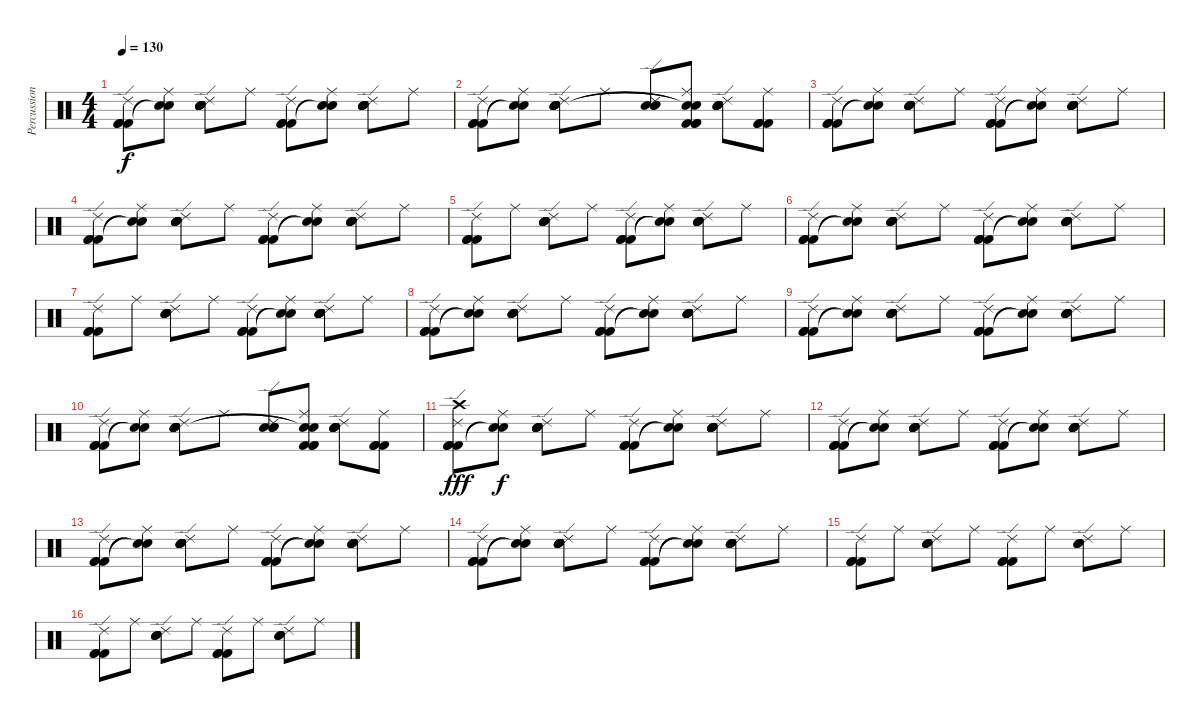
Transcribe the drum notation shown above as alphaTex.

\track ("Percussion" "Percussion") {instrument percussion}
\staff {score}
\articulation defaults
\ts (4 4)
\tempo 130
\clef neutral
\ks c
("Ride (edge) 2" "Kick (hit) 2" "Kick (hit) 2" "Kick (hit) 2").8{dy f} ("Ride (middle)" "Snare (hit)"{t} "Snare (hit)"{t}).8 ("Ride (edge) 2" "Electric Snare (hit)" "Electric Snare (hit)" "Electric Snare (hit)" "Hand Clap (hit)" "Hand Clap (hit)").8 "Ride (middle)".8 ("Ride (edge) 2" "Kick (hit) 2" "Kick (hit) 2" "Kick (hit) 2").8 ("Ride (middle)" "Snare (hit)"{t} "Snare (hit)"{t}).8 ("Ride (edge) 2" "Electric Snare (hit)" "Electric Snare (hit)" "Electric Snare (hit)" "Hand Clap (hit)" "Hand Clap (hit)").8 "Ride (middle)".8 |
("Ride (edge) 2" "Kick (hit) 2" "Kick (hit) 2" "Kick (hit) 2").8 ("Ride (middle)" "Snare (hit)"{t} "Snare (hit)"{t}).8 ("Ride (edge) 2" "Electric Snare (hit)" "Electric Snare (hit)" "Electric Snare (hit)" "Hand Clap (hit)" "Hand Clap (hit)").8 "Ride (middle)".8 ("Ride (edge) 2" "Electric Snare (hit)" "Electric Snare (hit)" "Electric Snare (hit)").8 ("Ride (middle)" "Kick (hit) 2" "Kick (hit) 2" "Kick (hit) 2" "Snare (hit)"{t} "Snare (hit)"{t}).8 ("Ride (edge) 2" "Electric Snare (hit)" "Electric Snare (hit)" "Electric Snare (hit)" "Hand Clap (hit)" "Hand Clap (hit)").8 ("Ride (middle)" "Kick (hit) 2" "Kick (hit) 2" "Kick (hit) 2").8 |
("Ride (edge) 2" "Kick (hit) 2" "Kick (hit) 2" "Kick (hit) 2").8 ("Ride (middle)" "Snare (hit)"{t} "Snare (hit)"{t}).8 ("Ride (edge) 2" "Electric Snare (hit)" "Electric Snare (hit)" "Electric Snare (hit)" "Hand Clap (hit)" "Hand Clap (hit)").8 "Ride (middle)".8 ("Ride (edge) 2" "Kick (hit) 2" "Kick (hit) 2" "Kick (hit) 2").8 ("Ride (middle)" "Snare (hit)"{t} "Snare (hit)"{t}).8 ("Ride (edge) 2" "Electric Snare (hit)" "Electric Snare (hit)" "Electric Snare (hit)" "Hand Clap (hit)" "Hand Clap (hit)").8 "Ride (middle)".8 |
("Ride (edge) 2" "Kick (hit) 2" "Kick (hit) 2" "Kick (hit) 2").8 ("Ride (middle)" "Snare (hit)"{t} "Snare (hit)"{t}).8 ("Ride (edge) 2" "Electric Snare (hit)" "Electric Snare (hit)" "Electric Snare (hit)" "Hand Clap (hit)" "Hand Clap (hit)").8 "Ride (middle)".8 ("Ride (edge) 2" "Kick (hit) 2" "Kick (hit) 2" "Kick (hit) 2").8 ("Ride (middle)" "Snare (hit)"{t} "Snare (hit)"{t}).8 ("Ride (edge) 2" "Electric Snare (hit)" "Electric Snare (hit)" "Electric Snare (hit)" "Hand Clap (hit)" "Hand Clap (hit)").8 "Ride (middle)".8 |
("Ride (edge) 2" "Kick (hit) 2" "Kick (hit) 2" "Kick (hit) 2").8 "Ride (middle)".8 ("Ride (edge) 2" "Electric Snare (hit)" "Electric Snare (hit)" "Electric Snare (hit)" "Hand Clap (hit)" "Hand Clap (hit)").8 "Ride (middle)".8 ("Ride (edge) 2" "Kick (hit) 2" "Kick (hit) 2" "Kick (hit) 2").8 ("Ride (middle)" "Snare (hit)"{t} "Snare (hit)"{t}).8 ("Ride (edge) 2" "Electric Snare (hit)" "Electric Snare (hit)" "Electric Snare (hit)" "Hand Clap (hit)" "Hand Clap (hit)").8 "Ride (middle)".8 |
("Ride (edge) 2" "Kick (hit) 2" "Kick (hit) 2" "Kick (hit) 2").8 ("Ride (middle)" "Snare (hit)"{t} "Snare (hit)"{t}).8 ("Ride (edge) 2" "Electric Snare (hit)" "Electric Snare (hit)" "Electric Snare (hit)" "Hand Clap (hit)" "Hand Clap (hit)").8 "Ride (middle)".8 ("Ride (edge) 2" "Kick (hit) 2" "Kick (hit) 2" "Kick (hit) 2").8 ("Ride (middle)" "Snare (hit)"{t} "Snare (hit)"{t}).8 ("Ride (edge) 2" "Electric Snare (hit)" "Electric Snare (hit)" "Electric Snare (hit)" "Hand Clap (hit)" "Hand Clap (hit)").8 "Ride (middle)".8 |
("Ride (edge) 2" "Kick (hit) 2" "Kick (hit) 2" "Kick (hit) 2").8 "Ride (middle)".8 ("Ride (edge) 2" "Electric Snare (hit)" "Electric Snare (hit)" "Electric Snare (hit)" "Hand Clap (hit)" "Hand Clap (hit)").8 "Ride (middle)".8 ("Ride (edge) 2" "Kick (hit) 2" "Kick (hit) 2" "Kick (hit) 2").8 ("Ride (middle)" "Snare (hit)"{t} "Snare (hit)"{t}).8 ("Ride (edge) 2" "Electric Snare (hit)" "Electric Snare (hit)" "Electric Snare (hit)" "Hand Clap (hit)" "Hand Clap (hit)").8 "Ride (middle)".8 |
("Ride (edge) 2" "Kick (hit) 2" "Kick (hit) 2" "Kick (hit) 2").8 ("Ride (middle)" "Snare (hit)"{t} "Snare (hit)"{t}).8 ("Ride (edge) 2" "Electric Snare (hit)" "Electric Snare (hit)" "Electric Snare (hit)" "Hand Clap (hit)" "Hand Clap (hit)").8 "Ride (middle)".8 ("Ride (edge) 2" "Kick (hit) 2" "Kick (hit) 2" "Kick (hit) 2").8 ("Ride (middle)" "Snare (hit)"{t} "Snare (hit)"{t}).8 ("Ride (edge) 2" "Electric Snare (hit)" "Electric Snare (hit)" "Electric Snare (hit)" "Hand Clap (hit)" "Hand Clap (hit)").8 "Ride (middle)".8 |
("Ride (edge) 2" "Kick (hit) 2" "Kick (hit) 2" "Kick (hit) 2").8 ("Ride (middle)" "Snare (hit)"{t} "Snare (hit)"{t}).8 ("Ride (edge) 2" "Electric Snare (hit)" "Electric Snare (hit)" "Electric Snare (hit)" "Hand Clap (hit)" "Hand Clap (hit)").8 "Ride (middle)".8 ("Ride (edge) 2" "Kick (hit) 2" "Kick (hit) 2" "Kick (hit) 2").8 ("Ride (middle)" "Snare (hit)"{t} "Snare (hit)"{t}).8 ("Ride (edge) 2" "Electric Snare (hit)" "Electric Snare (hit)" "Electric Snare (hit)" "Hand Clap (hit)" "Hand Clap (hit)").8 "Ride (middle)".8 |
("Ride (edge) 2" "Kick (hit) 2" "Kick (hit) 2" "Kick (hit) 2").8 ("Ride (middle)" "Snare (hit)"{t} "Snare (hit)"{t}).8 ("Ride (edge) 2" "Electric Snare (hit)" "Electric Snare (hit)" "Electric Snare (hit)" "Hand Clap (hit)" "Hand Clap (hit)").8 "Ride (middle)".8 ("Ride (edge) 2" "Electric Snare (hit)" "Electric Snare (hit)" "Electric Snare (hit)").8 ("Ride (middle)" "Kick (hit) 2" "Kick (hit) 2" "Kick (hit) 2" "Snare (hit)"{t} "Snare (hit)"{t}).8 ("Ride (edge) 2" "Electric Snare (hit)" "Electric Snare (hit)" "Electric Snare (hit)" "Hand Clap (hit)" "Hand Clap (hit)").8 ("Ride (middle)" "Kick (hit) 2" "Kick (hit) 2" "Kick (hit) 2").8 |
("Ride (edge) 2" "Kick (hit) 2" "Kick (hit) 2" "Kick (hit) 2" "Crash high (hit)").8{dy fff} ("Ride (middle)" "Snare (hit)"{t} "Snare (hit)"{t}).8{dy f} ("Ride (edge) 2" "Electric Snare (hit)" "Electric Snare (hit)" "Electric Snare (hit)" "Hand Clap (hit)" "Hand Clap (hit)").8 "Ride (middle)".8 ("Ride (edge) 2" "Kick (hit) 2" "Kick (hit) 2" "Kick (hit) 2").8 ("Ride (middle)" "Snare (hit)"{t} "Snare (hit)"{t}).8 ("Ride (edge) 2" "Electric Snare (hit)" "Electric Snare (hit)" "Electric Snare (hit)" "Hand Clap (hit)" "Hand Clap (hit)").8 "Ride (middle)".8 |
("Ride (edge) 2" "Kick (hit) 2" "Kick (hit) 2" "Kick (hit) 2").8 ("Ride (middle)" "Snare (hit)"{t} "Snare (hit)"{t}).8 ("Ride (edge) 2" "Electric Snare (hit)" "Electric Snare (hit)" "Electric Snare (hit)" "Hand Clap (hit)" "Hand Clap (hit)").8 "Ride (middle)".8 ("Ride (edge) 2" "Kick (hit) 2" "Kick (hit) 2" "Kick (hit) 2").8 ("Ride (middle)" "Snare (hit)"{t} "Snare (hit)"{t}).8 ("Ride (edge) 2" "Electric Snare (hit)" "Electric Snare (hit)" "Electric Snare (hit)" "Hand Clap (hit)" "Hand Clap (hit)").8 "Ride (middle)".8 |
("Ride (edge) 2" "Kick (hit) 2" "Kick (hit) 2" "Kick (hit) 2").8 ("Ride (middle)" "Snare (hit)"{t} "Snare (hit)"{t}).8 ("Ride (edge) 2" "Electric Snare (hit)" "Electric Snare (hit)" "Electric Snare (hit)" "Hand Clap (hit)" "Hand Clap (hit)").8 "Ride (middle)".8 ("Ride (edge) 2" "Kick (hit) 2" "Kick (hit) 2" "Kick (hit) 2").8 ("Ride (middle)" "Snare (hit)"{t} "Snare (hit)"{t}).8 ("Ride (edge) 2" "Electric Snare (hit)" "Electric Snare (hit)" "Electric Snare (hit)" "Hand Clap (hit)" "Hand Clap (hit)").8 "Ride (middle)".8 |
("Ride (edge) 2" "Kick (hit) 2" "Kick (hit) 2" "Kick (hit) 2").8 ("Ride (middle)" "Snare (hit)"{t} "Snare (hit)"{t}).8 ("Ride (edge) 2" "Electric Snare (hit)" "Electric Snare (hit)" "Electric Snare (hit)" "Hand Clap (hit)" "Hand Clap (hit)").8 "Ride (middle)".8 ("Ride (edge) 2" "Kick (hit) 2" "Kick (hit) 2" "Kick (hit) 2").8 ("Ride (middle)" "Snare (hit)"{t} "Snare (hit)"{t}).8 ("Ride (edge) 2" "Electric Snare (hit)" "Electric Snare (hit)" "Electric Snare (hit)" "Hand Clap (hit)" "Hand Clap (hit)").8 "Ride (middle)".8 |
("Ride (edge) 2" "Kick (hit) 2" "Kick (hit) 2" "Kick (hit) 2").8 "Ride (middle)".8 ("Ride (edge) 2" "Electric Snare (hit)" "Electric Snare (hit)" "Electric Snare (hit)").8 "Ride (middle)".8 ("Ride (edge) 2" "Kick (hit) 2" "Kick (hit) 2" "Kick (hit) 2").8 "Ride (middle)".8 ("Ride (edge) 2" "Electric Snare (hit)" "Electric Snare (hit)" "Electric Snare (hit)").8 "Ride (middle)".8 |
("Ride (edge) 2" "Kick (hit) 2" "Kick (hit) 2" "Kick (hit) 2").8 "Ride (middle)".8 ("Ride (edge) 2" "Electric Snare (hit)" "Electric Snare (hit)" "Electric Snare (hit)").8 "Ride (middle)".8 ("Ride (edge) 2" "Kick (hit) 2" "Kick (hit) 2" "Kick (hit) 2").8 "Ride (middle)".8 ("Ride (edge) 2" "Electric Snare (hit)" "Electric Snare (hit)" "Electric Snare (hit)").8 "Ride (middle)".8
